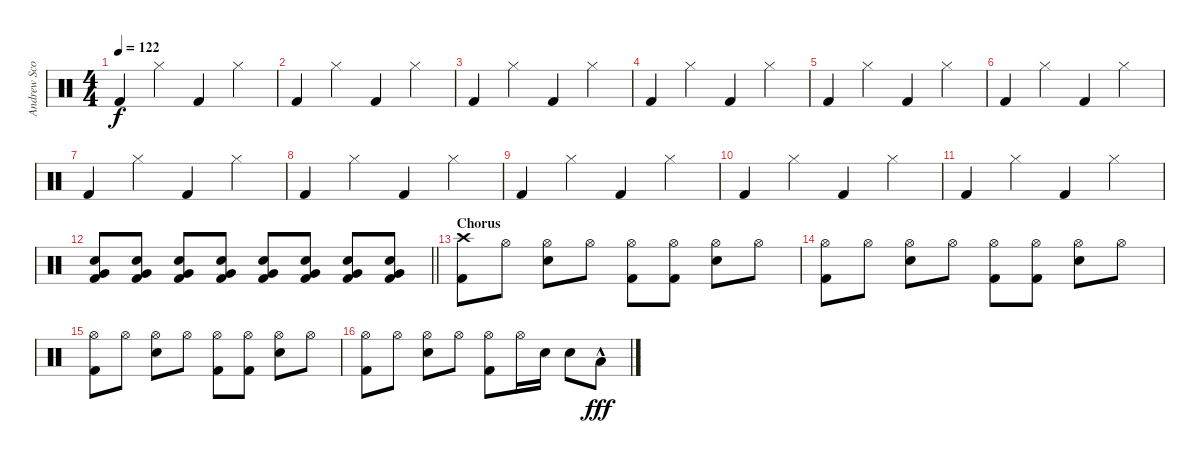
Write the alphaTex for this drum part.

\track ("Andrew Scott" "Andrew Sco") {instrument percussion}
\staff {score}
\articulation defaults
\ts (4 4)
\tempo 122
\clef neutral
\ks c "Kick (hit) 2".4{dy f} "Hi-Hat (closed)".4 "Kick (hit) 2".4 "Hi-Hat (closed)".4
|
"Kick (hit) 2".4 "Hi-Hat (closed)".4 "Kick (hit) 2".4 "Hi-Hat (closed)".4 |
"Kick (hit) 2".4 "Hi-Hat (closed)".4 "Kick (hit) 2".4 "Hi-Hat (closed)".4 |
"Kick (hit) 2".4 "Hi-Hat (closed)".4 "Kick (hit) 2".4 "Hi-Hat (closed)".4 |
"Kick (hit) 2".4 "Hi-Hat (closed)".4 "Kick (hit) 2".4 "Hi-Hat (closed)".4 |
"Kick (hit) 2".4 "Hi-Hat (closed)".4 "Kick (hit) 2".4 "Hi-Hat (closed)".4 |
"Kick (hit) 2".4 "Hi-Hat (closed)".4 "Kick (hit) 2".4 "Hi-Hat (closed)".4 |
"Kick (hit) 2".4 "Hi-Hat (closed)".4 "Kick (hit) 2".4 "Hi-Hat (closed)".4 |
"Kick (hit) 2".4 "Hi-Hat (closed)".4 "Kick (hit) 2".4 "Hi-Hat (closed)".4 |
"Kick (hit) 2".4 "Hi-Hat (closed)".4 "Kick (hit) 2".4 "Hi-Hat (closed)".4 |
"Kick (hit) 2".4 "Hi-Hat (closed)".4 "Kick (hit) 2".4 "Hi-Hat (closed)".4 |
\barLineRight lightlight
("Snare (hit) 2" "Very Low Tom (hit)" "Kick (hit) 2").8{volume 4} ("Snare (hit) 2" "Very Low Tom (hit)" "Kick (hit) 2").8{volume 13} ("Snare (hit) 2" "Very Low Tom (hit)" "Kick (hit) 2").8 ("Snare (hit) 2" "Very Low Tom (hit)" "Kick (hit) 2").8 ("Snare (hit) 2" "Very Low Tom (hit)" "Kick (hit) 2").8 ("Snare (hit) 2" "Very Low Tom (hit)" "Kick (hit) 2").8 ("Snare (hit) 2" "Very Low Tom (hit)" "Kick (hit) 2").8 ("Snare (hit) 2" "Very Low Tom (hit)" "Kick (hit) 2").8 |
\section ("" "Chorus")
("Crash high (hit)" "Kick (hit) 2").8 "Hi-Hat (open)".8 ("Hi-Hat (open)" "Snare (hit) 2").8 "Hi-Hat (open)".8 ("Hi-Hat (open)" "Kick (hit) 2").8 ("Hi-Hat (open)" "Kick (hit) 2").8 ("Hi-Hat (open)" "Snare (hit) 2").8 "Hi-Hat (open)".8 |
("Hi-Hat (open)" "Kick (hit) 2").8 "Hi-Hat (open)".8 ("Hi-Hat (open)" "Snare (hit) 2").8 "Hi-Hat (open)".8 ("Hi-Hat (open)" "Kick (hit) 2").8 ("Hi-Hat (open)" "Kick (hit) 2").8 ("Hi-Hat (open)" "Snare (hit) 2").8 "Hi-Hat (open)".8 |
("Hi-Hat (open)" "Kick (hit) 2").8 "Hi-Hat (open)".8 ("Hi-Hat (open)" "Snare (hit) 2").8 "Hi-Hat (open)".8 ("Hi-Hat (open)" "Kick (hit) 2").8 ("Hi-Hat (open)" "Kick (hit) 2").8 ("Hi-Hat (open)" "Snare (hit) 2").8 "Hi-Hat (open)".8 |
("Hi-Hat (open)" "Kick (hit) 2").8 "Hi-Hat (open)".8 ("Hi-Hat (open)" "Snare (hit) 2").8 "Hi-Hat (open)".8 ("Hi-Hat (open)" "Kick (hit) 2").8 "Hi-Hat (open)".16 "Snare (hit) 2".16 "Snare (hit) 2".8 "Low Tom (hit)"{hac}.8{dy fff}
